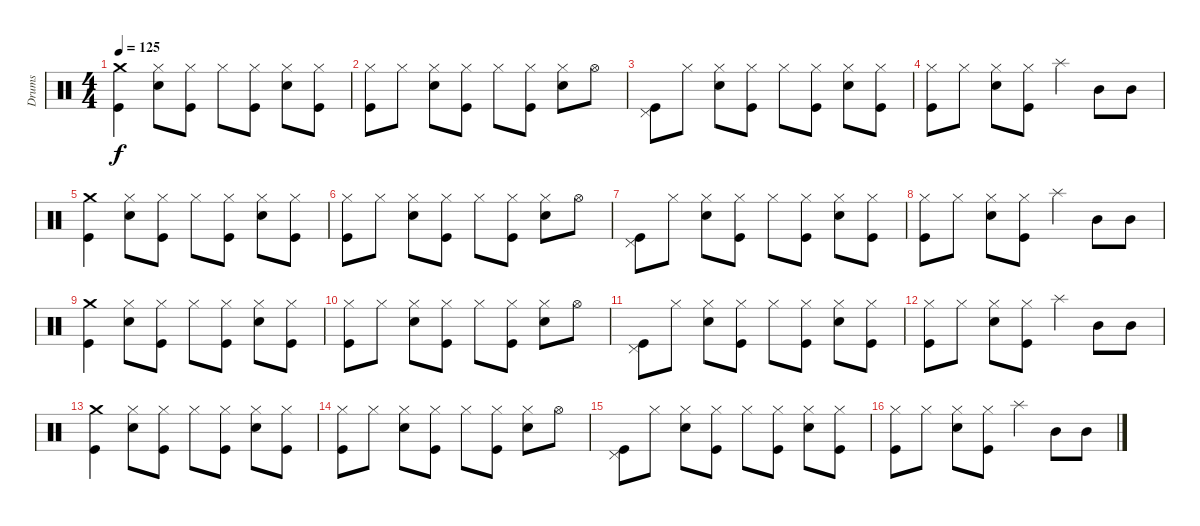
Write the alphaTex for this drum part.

\track ("Drums" "Drums") {instrument percussion}
\staff {score}
\articulation defaults
\ts (4 4)
\tempo 125
\clef neutral
\ks c
("Crash medium (hit)" "Kick (hit)").4{dy f} ("Hi-Hat (closed)" "Snare (hit) 2").8 ("Hi-Hat (closed)" "Kick (hit)").8 "Hi-Hat (closed)".8 ("Hi-Hat (closed)" "Kick (hit)").8 ("Hi-Hat (closed)" "Snare (hit) 2").8 ("Hi-Hat (closed)" "Kick (hit)").8 |
("Hi-Hat (closed)" "Kick (hit)").8 "Hi-Hat (closed)".8 ("Hi-Hat (closed)" "Snare (hit) 2").8 ("Hi-Hat (closed)" "Kick (hit)").8 "Hi-Hat (closed)".8 ("Hi-Hat (closed)" "Kick (hit)").8 ("Hi-Hat (closed)" "Snare (hit) 2").8 "Hi-Hat (open)".8 |
("Pedal Hi-Hat (hit)" "Kick (hit)").8 "Hi-Hat (closed)".8 ("Hi-Hat (closed)" "Snare (hit) 2").8 ("Hi-Hat (closed)" "Kick (hit)").8 "Hi-Hat (closed)".8 ("Hi-Hat (closed)" "Kick (hit)").8 ("Hi-Hat (closed)" "Snare (hit) 2").8 ("Hi-Hat (closed)" "Kick (hit)").8 |
("Hi-Hat (closed)" "Kick (hit)").8 "Hi-Hat (closed)".8 ("Hi-Hat (closed)" "Snare (hit) 2").8 ("Hi-Hat (closed)" "Kick (hit)").8 "Splash (hit)".4 "Mid Tom (hit)".8 "Mid Tom (hit)".8 |
("Crash medium (hit)" "Kick (hit)").4 ("Hi-Hat (closed)" "Snare (hit) 2").8 ("Hi-Hat (closed)" "Kick (hit)").8 "Hi-Hat (closed)".8 ("Hi-Hat (closed)" "Kick (hit)").8 ("Hi-Hat (closed)" "Snare (hit) 2").8 ("Hi-Hat (closed)" "Kick (hit)").8 |
("Hi-Hat (closed)" "Kick (hit)").8 "Hi-Hat (closed)".8 ("Hi-Hat (closed)" "Snare (hit) 2").8 ("Hi-Hat (closed)" "Kick (hit)").8 "Hi-Hat (closed)".8 ("Hi-Hat (closed)" "Kick (hit)").8 ("Hi-Hat (closed)" "Snare (hit) 2").8 "Hi-Hat (open)".8 |
("Pedal Hi-Hat (hit)" "Kick (hit)").8 "Hi-Hat (closed)".8 ("Hi-Hat (closed)" "Snare (hit) 2").8 ("Hi-Hat (closed)" "Kick (hit)").8 "Hi-Hat (closed)".8 ("Hi-Hat (closed)" "Kick (hit)").8 ("Hi-Hat (closed)" "Snare (hit) 2").8 ("Hi-Hat (closed)" "Kick (hit)").8 |
("Hi-Hat (closed)" "Kick (hit)").8 "Hi-Hat (closed)".8 ("Hi-Hat (closed)" "Snare (hit) 2").8 ("Hi-Hat (closed)" "Kick (hit)").8 "Splash (hit)".4 "Mid Tom (hit)".8 "Mid Tom (hit)".8 |
("Crash medium (hit)" "Kick (hit)").4 ("Hi-Hat (closed)" "Snare (hit) 2").8 ("Hi-Hat (closed)" "Kick (hit)").8 "Hi-Hat (closed)".8 ("Hi-Hat (closed)" "Kick (hit)").8 ("Hi-Hat (closed)" "Snare (hit) 2").8 ("Hi-Hat (closed)" "Kick (hit)").8 |
("Hi-Hat (closed)" "Kick (hit)").8 "Hi-Hat (closed)".8 ("Hi-Hat (closed)" "Snare (hit) 2").8 ("Hi-Hat (closed)" "Kick (hit)").8 "Hi-Hat (closed)".8 ("Hi-Hat (closed)" "Kick (hit)").8 ("Hi-Hat (closed)" "Snare (hit) 2").8 "Hi-Hat (open)".8 |
("Pedal Hi-Hat (hit)" "Kick (hit)").8 "Hi-Hat (closed)".8 ("Hi-Hat (closed)" "Snare (hit) 2").8 ("Hi-Hat (closed)" "Kick (hit)").8 "Hi-Hat (closed)".8 ("Hi-Hat (closed)" "Kick (hit)").8 ("Hi-Hat (closed)" "Snare (hit) 2").8 ("Hi-Hat (closed)" "Kick (hit)").8 |
("Hi-Hat (closed)" "Kick (hit)").8 "Hi-Hat (closed)".8 ("Hi-Hat (closed)" "Snare (hit) 2").8 ("Hi-Hat (closed)" "Kick (hit)").8 "Splash (hit)".4 "Mid Tom (hit)".8 "Mid Tom (hit)".8 |
("Crash medium (hit)" "Kick (hit)").4 ("Hi-Hat (closed)" "Snare (hit) 2").8 ("Hi-Hat (closed)" "Kick (hit)").8 "Hi-Hat (closed)".8 ("Hi-Hat (closed)" "Kick (hit)").8 ("Hi-Hat (closed)" "Snare (hit) 2").8 ("Hi-Hat (closed)" "Kick (hit)").8 |
("Hi-Hat (closed)" "Kick (hit)").8 "Hi-Hat (closed)".8 ("Hi-Hat (closed)" "Snare (hit) 2").8 ("Hi-Hat (closed)" "Kick (hit)").8 "Hi-Hat (closed)".8 ("Hi-Hat (closed)" "Kick (hit)").8 ("Hi-Hat (closed)" "Snare (hit) 2").8 "Hi-Hat (open)".8 |
("Pedal Hi-Hat (hit)" "Kick (hit)").8 "Hi-Hat (closed)".8 ("Hi-Hat (closed)" "Snare (hit) 2").8 ("Hi-Hat (closed)" "Kick (hit)").8 "Hi-Hat (closed)".8 ("Hi-Hat (closed)" "Kick (hit)").8 ("Hi-Hat (closed)" "Snare (hit) 2").8 ("Hi-Hat (closed)" "Kick (hit)").8 |
("Hi-Hat (closed)" "Kick (hit)").8 "Hi-Hat (closed)".8 ("Hi-Hat (closed)" "Snare (hit) 2").8 ("Hi-Hat (closed)" "Kick (hit)").8 "Splash (hit)".4 "Mid Tom (hit)".8 "Mid Tom (hit)".8
